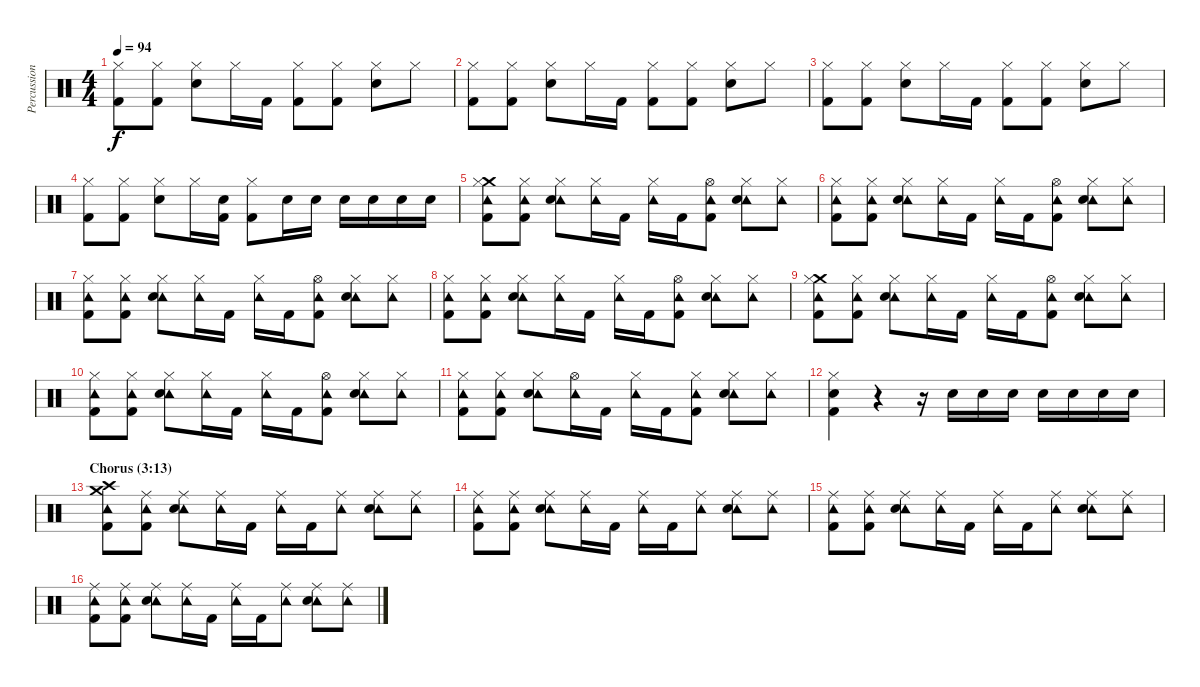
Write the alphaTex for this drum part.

\track ("Percussion" "Percussion") {instrument percussion}
\staff {score}
\articulation defaults
\ts (4 4)
\tempo 94
\clef neutral
\ks c
("Hi-Hat (closed)" "Kick (hit) 2").8{dy f} ("Hi-Hat (closed)" "Kick (hit) 2").8 ("Hi-Hat (closed)" "Snare (hit) 2").8 "Hi-Hat (closed)".16 "Kick (hit) 2".16 ("Hi-Hat (closed)" "Kick (hit) 2").8 ("Hi-Hat (closed)" "Kick (hit) 2").8 ("Hi-Hat (closed)" "Snare (hit) 2").8 "Hi-Hat (closed)".8 |
("Hi-Hat (closed)" "Kick (hit) 2").8 ("Hi-Hat (closed)" "Kick (hit) 2").8 ("Hi-Hat (closed)" "Snare (hit) 2").8 "Hi-Hat (closed)".16 "Kick (hit) 2".16 ("Hi-Hat (closed)" "Kick (hit) 2").8 ("Hi-Hat (closed)" "Kick (hit) 2").8 ("Hi-Hat (closed)" "Snare (hit) 2").8 "Hi-Hat (closed)".8 |
("Hi-Hat (closed)" "Kick (hit) 2").8 ("Hi-Hat (closed)" "Kick (hit) 2").8 ("Hi-Hat (closed)" "Snare (hit) 2").8 "Hi-Hat (closed)".16 "Kick (hit) 2".16 ("Hi-Hat (closed)" "Kick (hit) 2").8 ("Hi-Hat (closed)" "Kick (hit) 2").8 ("Hi-Hat (closed)" "Snare (hit) 2").8 "Hi-Hat (closed)".8 |
("Hi-Hat (closed)" "Kick (hit) 2").8 ("Hi-Hat (closed)" "Kick (hit) 2").8 ("Hi-Hat (closed)" "Snare (hit) 2").8 "Hi-Hat (closed)".16 ("Snare (hit) 2" "Kick (hit) 2").16 ("Hi-Hat (closed)" "Kick (hit) 2").8 "Snare (hit) 2".16 "Snare (hit) 2".16 "Snare (hit) 2".16 "Snare (hit) 2".16 "Snare (hit) 2".16 "Snare (hit) 2".16 |
("Crash medium (hit)" "Hi-Hat (closed)" "Tambourine (hit)" "Kick (hit) 2").8 ("Hi-Hat (closed)" "Tambourine (hit)" "Kick (hit) 2").8 ("Hi-Hat (closed)" "Tambourine (hit)" "Snare (hit) 2").8 ("Hi-Hat (closed)" "Tambourine (hit)").16 "Kick (hit) 2".16 ("Hi-Hat (closed)" "Tambourine (hit)").16 "Kick (hit) 2".16 ("Hi-Hat (open)" "Tambourine (hit)" "Kick (hit) 2").8 ("Hi-Hat (closed)" "Tambourine (hit)" "Snare (hit) 2").8 ("Hi-Hat (closed)" "Tambourine (hit)").8 |
("Hi-Hat (closed)" "Tambourine (hit)" "Kick (hit) 2").8 ("Hi-Hat (closed)" "Tambourine (hit)" "Kick (hit) 2").8 ("Hi-Hat (closed)" "Tambourine (hit)" "Snare (hit) 2").8 ("Hi-Hat (closed)" "Tambourine (hit)").16 "Kick (hit) 2".16 ("Hi-Hat (closed)" "Tambourine (hit)").16 "Kick (hit) 2".16 ("Hi-Hat (open)" "Tambourine (hit)" "Kick (hit) 2").8 ("Hi-Hat (closed)" "Tambourine (hit)" "Snare (hit) 2").8 ("Hi-Hat (closed)" "Tambourine (hit)").8 |
("Hi-Hat (closed)" "Tambourine (hit)" "Kick (hit) 2").8 ("Hi-Hat (closed)" "Tambourine (hit)" "Kick (hit) 2").8 ("Hi-Hat (closed)" "Tambourine (hit)" "Snare (hit) 2").8 ("Hi-Hat (closed)" "Tambourine (hit)").16 "Kick (hit) 2".16 ("Hi-Hat (closed)" "Tambourine (hit)").16 "Kick (hit) 2".16 ("Hi-Hat (open)" "Tambourine (hit)" "Kick (hit) 2").8 ("Hi-Hat (closed)" "Tambourine (hit)" "Snare (hit) 2").8 ("Hi-Hat (closed)" "Tambourine (hit)").8 |
("Hi-Hat (closed)" "Tambourine (hit)" "Kick (hit) 2").8 ("Hi-Hat (closed)" "Tambourine (hit)" "Kick (hit) 2").8 ("Hi-Hat (closed)" "Tambourine (hit)" "Snare (hit) 2").8 ("Hi-Hat (closed)" "Tambourine (hit)").16 "Kick (hit) 2".16 ("Hi-Hat (closed)" "Tambourine (hit)").16 "Kick (hit) 2".16 ("Hi-Hat (open)" "Tambourine (hit)" "Kick (hit) 2").8 ("Hi-Hat (closed)" "Tambourine (hit)" "Snare (hit) 2").8 ("Hi-Hat (closed)" "Tambourine (hit)").8 |
("Crash medium (hit)" "Hi-Hat (closed)" "Tambourine (hit)" "Kick (hit) 2").8 ("Hi-Hat (closed)" "Tambourine (hit)" "Kick (hit) 2").8 ("Hi-Hat (closed)" "Tambourine (hit)" "Snare (hit) 2").8 ("Hi-Hat (closed)" "Tambourine (hit)").16 "Kick (hit) 2".16 ("Hi-Hat (closed)" "Tambourine (hit)").16 "Kick (hit) 2".16 ("Hi-Hat (open)" "Tambourine (hit)" "Kick (hit) 2").8 ("Hi-Hat (closed)" "Tambourine (hit)" "Snare (hit) 2").8 ("Hi-Hat (closed)" "Tambourine (hit)").8 |
("Hi-Hat (closed)" "Tambourine (hit)" "Kick (hit) 2").8 ("Hi-Hat (closed)" "Tambourine (hit)" "Kick (hit) 2").8 ("Hi-Hat (closed)" "Tambourine (hit)" "Snare (hit) 2").8 ("Hi-Hat (closed)" "Tambourine (hit)").16 "Kick (hit) 2".16 ("Hi-Hat (closed)" "Tambourine (hit)").16 "Kick (hit) 2".16 ("Hi-Hat (open)" "Tambourine (hit)" "Kick (hit) 2").8 ("Hi-Hat (closed)" "Tambourine (hit)" "Snare (hit) 2").8 ("Hi-Hat (closed)" "Tambourine (hit)").8 |
("Hi-Hat (closed)" "Tambourine (hit)" "Kick (hit) 2").8 ("Hi-Hat (closed)" "Tambourine (hit)" "Kick (hit) 2").8 ("Hi-Hat (closed)" "Tambourine (hit)" "Snare (hit) 2").8 ("Hi-Hat (open)" "Tambourine (hit)").16 "Kick (hit) 2".16 ("Hi-Hat (closed)" "Tambourine (hit)").16 "Kick (hit) 2".16 ("Hi-Hat (closed)" "Tambourine (hit)" "Kick (hit) 2").8 ("Hi-Hat (closed)" "Tambourine (hit)" "Snare (hit) 2").8 ("Hi-Hat (closed)" "Tambourine (hit)").8 |
("Hi-Hat (closed)" "Snare (hit) 2" "Kick (hit) 2").4 r.4 r.16 "Snare (hit) 2".16 "Snare (hit) 2".16 "Snare (hit) 2".16 "Snare (hit) 2".16 "Snare (hit) 2".16 "Snare (hit) 2".16 "Snare (hit) 2".16 |
\section ("" "Chorus (3:13)")
("Crash high (hit)" "Crash medium (hit)" "Tambourine (hit)" "Kick (hit) 2").8 ("Ride (middle)" "Tambourine (hit)" "Kick (hit) 2").8 ("Ride (middle)" "Tambourine (hit)" "Snare (hit) 2").8 ("Ride (middle)" "Tambourine (hit)").16 "Kick (hit) 2".16 ("Ride (middle)" "Tambourine (hit)").16 "Kick (hit) 2".16 ("Ride (middle)" "Tambourine (hit)").8 ("Ride (middle)" "Tambourine (hit)" "Snare (hit) 2").8 ("Ride (middle)" "Tambourine (hit)").8 |
("Ride (middle)" "Tambourine (hit)" "Kick (hit) 2").8 ("Ride (middle)" "Tambourine (hit)" "Kick (hit) 2").8 ("Ride (middle)" "Tambourine (hit)" "Snare (hit) 2").8 ("Ride (middle)" "Tambourine (hit)").16 "Kick (hit) 2".16 ("Ride (middle)" "Tambourine (hit)").16 "Kick (hit) 2".16 ("Ride (middle)" "Tambourine (hit)").8 ("Ride (middle)" "Tambourine (hit)" "Snare (hit) 2").8 ("Ride (middle)" "Tambourine (hit)").8 |
("Ride (middle)" "Tambourine (hit)" "Kick (hit) 2").8 ("Ride (middle)" "Tambourine (hit)" "Kick (hit) 2").8 ("Ride (middle)" "Tambourine (hit)" "Snare (hit) 2").8 ("Ride (middle)" "Tambourine (hit)").16 "Kick (hit) 2".16 ("Ride (middle)" "Tambourine (hit)").16 "Kick (hit) 2".16 ("Ride (middle)" "Tambourine (hit)").8 ("Ride (middle)" "Tambourine (hit)" "Snare (hit) 2").8 ("Ride (middle)" "Tambourine (hit)").8 |
("Ride (middle)" "Tambourine (hit)" "Kick (hit) 2").8 ("Ride (middle)" "Tambourine (hit)" "Kick (hit) 2").8 ("Ride (middle)" "Tambourine (hit)" "Snare (hit) 2").8 ("Ride (middle)" "Tambourine (hit)").16 "Kick (hit) 2".16 ("Ride (middle)" "Tambourine (hit)").16 "Kick (hit) 2".16 ("Ride (middle)" "Tambourine (hit)").8 ("Ride (middle)" "Tambourine (hit)" "Snare (hit) 2").8 ("Ride (middle)" "Tambourine (hit)").8
